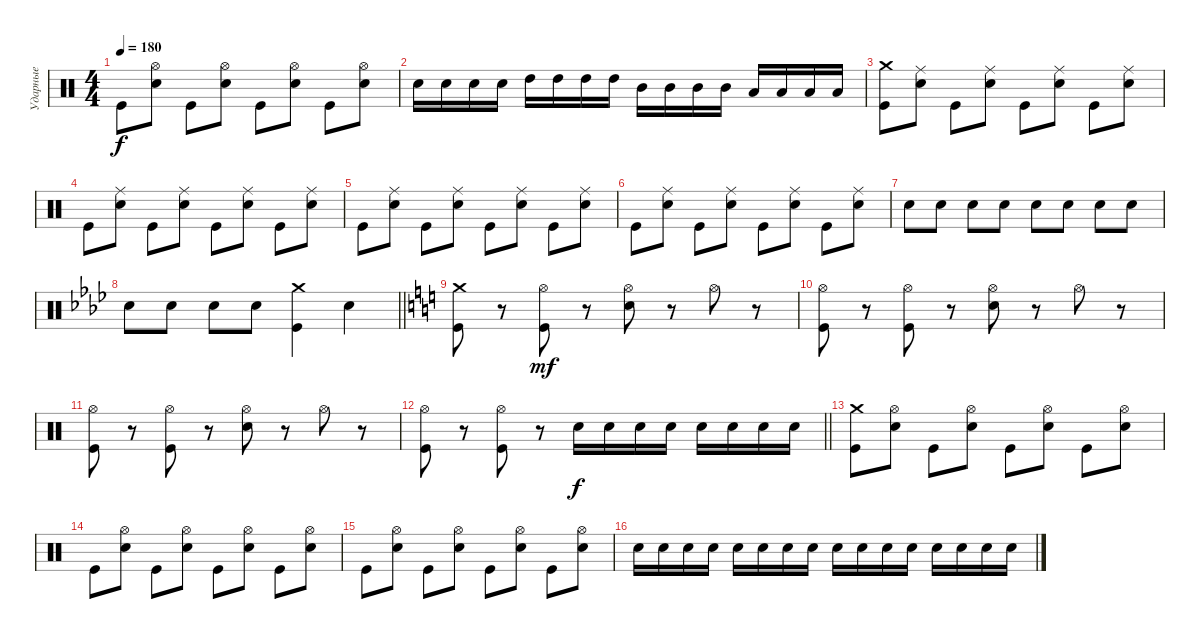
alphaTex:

\track ("Ударные" "Ударные") {instrument percussion}
\staff {score}
\articulation defaults
\ts (4 4)
\tempo 180
\clef neutral
\ks c "Kick (hit)".8{dy f}
("Hi-Hat (open)" "Electric Snare (hit)").8 "Kick (hit)".8 ("Hi-Hat (open)" "Electric Snare (hit)").8 "Kick (hit)".8 ("Hi-Hat (open)" "Electric Snare (hit)").8 "Kick (hit)".8 ("Hi-Hat (open)" "Electric Snare (hit)").8 |
"Electric Snare (hit)".16 "Electric Snare (hit)".16 "Electric Snare (hit)".16 "Electric Snare (hit)".16 "High Tom (hit)".16 "High Tom (hit)".16 "High Tom (hit)".16 "High Tom (hit)".16 "Mid Tom (hit)".16 "Mid Tom (hit)".16 "Mid Tom (hit)".16 "Mid Tom (hit)".16 "Low Tom (hit)".16 "Low Tom (hit)".16 "Low Tom (hit)".16 "Low Tom (hit)".16 |
("Crash medium (hit)" "Kick (hit)").8 ("Ride (middle)" "Electric Snare (hit)").8 "Kick (hit)".8 ("Ride (middle)" "Electric Snare (hit)").8 "Kick (hit)".8 ("Ride (middle)" "Electric Snare (hit)").8 "Kick (hit)".8 ("Ride (middle)" "Electric Snare (hit)").8 |
"Kick (hit)".8 ("Ride (middle)" "Electric Snare (hit)").8 "Kick (hit)".8 ("Ride (middle)" "Electric Snare (hit)").8 "Kick (hit)".8 ("Ride (middle)" "Electric Snare (hit)").8 "Kick (hit)".8 ("Ride (middle)" "Electric Snare (hit)").8 |
"Kick (hit)".8 ("Ride (middle)" "Electric Snare (hit)").8 "Kick (hit)".8 ("Ride (middle)" "Electric Snare (hit)").8 "Kick (hit)".8 ("Ride (middle)" "Electric Snare (hit)").8 "Kick (hit)".8 ("Ride (middle)" "Electric Snare (hit)").8 |
"Kick (hit)".8 ("Ride (middle)" "Electric Snare (hit)").8 "Kick (hit)".8 ("Ride (middle)" "Electric Snare (hit)").8 "Kick (hit)".8 ("Ride (middle)" "Electric Snare (hit)").8 "Kick (hit)".8 ("Ride (middle)" "Electric Snare (hit)").8 |
"Electric Snare (hit)".8 "Electric Snare (hit)".8 "Electric Snare (hit)".8 "Electric Snare (hit)".8 "Electric Snare (hit)".8 "Electric Snare (hit)".8 "Electric Snare (hit)".8 "Electric Snare (hit)".8 |
\barLineRight lightlight
\ks ab "Electric Snare (hit)".8 "Electric Snare (hit)".8 "Electric Snare (hit)".8 "Electric Snare (hit)".8
("Crash medium (hit)" "Kick (hit)").4 "Electric Snare (hit)".4 |
\ks c
("Kick (hit)" "Crash medium (hit)").8 r.8 ("Kick (hit)" "Hi-Hat (open)").8{dy mf} r.8 ("Electric Snare (hit)" "Hi-Hat (open)").8 r.8 "Hi-Hat (open)".8 r.8 |
("Kick (hit)" "Hi-Hat (open)").8 r.8 ("Kick (hit)" "Hi-Hat (open)").8 r.8 ("Electric Snare (hit)" "Hi-Hat (open)").8 r.8 "Hi-Hat (open)".8 r.8 |
("Kick (hit)" "Hi-Hat (open)").8 r.8 ("Kick (hit)" "Hi-Hat (open)").8 r.8 ("Electric Snare (hit)" "Hi-Hat (open)").8 r.8 "Hi-Hat (open)".8 r.8 |
\barLineRight lightlight
("Kick (hit)" "Hi-Hat (open)").8 r.8 ("Kick (hit)" "Hi-Hat (open)").8 r.8 "Electric Snare (hit)".16{dy f} "Electric Snare (hit)".16 "Electric Snare (hit)".16 "Electric Snare (hit)".16 "Electric Snare (hit)".16 "Electric Snare (hit)".16 "Electric Snare (hit)".16 "Electric Snare (hit)".16 |
("Crash medium (hit)" "Kick (hit)").8 ("Hi-Hat (open)" "Electric Snare (hit)").8 "Kick (hit)".8 ("Hi-Hat (open)" "Electric Snare (hit)").8 "Kick (hit)".8 ("Hi-Hat (open)" "Electric Snare (hit)").8 "Kick (hit)".8 ("Hi-Hat (open)" "Electric Snare (hit)").8 |
"Kick (hit)".8 ("Hi-Hat (open)" "Electric Snare (hit)").8 "Kick (hit)".8 ("Hi-Hat (open)" "Electric Snare (hit)").8 "Kick (hit)".8 ("Hi-Hat (open)" "Electric Snare (hit)").8 "Kick (hit)".8 ("Hi-Hat (open)" "Electric Snare (hit)").8 |
"Kick (hit)".8 ("Hi-Hat (open)" "Electric Snare (hit)").8 "Kick (hit)".8 ("Hi-Hat (open)" "Electric Snare (hit)").8 "Kick (hit)".8 ("Hi-Hat (open)" "Electric Snare (hit)").8 "Kick (hit)".8 ("Hi-Hat (open)" "Electric Snare (hit)").8 |
"Electric Snare (hit)".16 "Electric Snare (hit)".16 "Electric Snare (hit)".16 "Electric Snare (hit)".16 "Electric Snare (hit)".16 "Electric Snare (hit)".16 "Electric Snare (hit)".16 "Electric Snare (hit)".16 "Electric Snare (hit)".16 "Electric Snare (hit)".16 "Electric Snare (hit)".16 "Electric Snare (hit)".16 "Electric Snare (hit)".16 "Electric Snare (hit)".16 "Electric Snare (hit)".16 "Electric Snare (hit)".16
